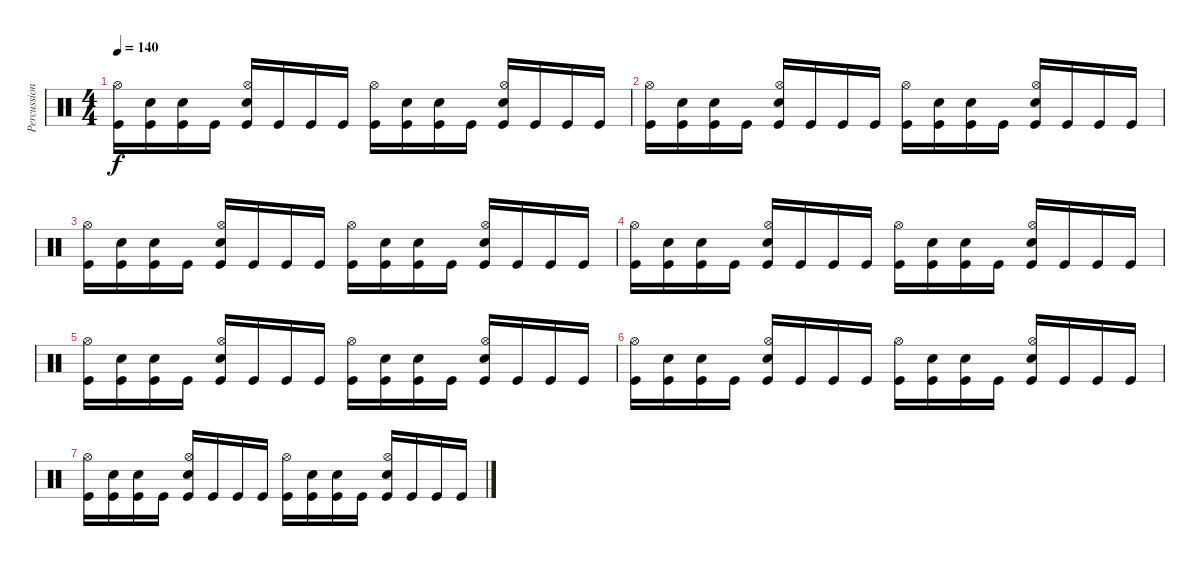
\track ("Percussion" "Percussion") {instrument percussion}
\staff {score}
\articulation defaults
\ts (4 4)
\tempo 140
\clef neutral
\ks c
("Kick (hit)" "Hi-Hat (open)").16{dy f} ("Kick (hit)" "Electric Snare (hit)").16 ("Kick (hit)" "Electric Snare (hit)").16 "Kick (hit)".16 ("Kick (hit)" "Electric Snare (hit)" "Hi-Hat (open)").16 "Kick (hit)".16 "Kick (hit)".16 "Kick (hit)".16 ("Kick (hit)" "Hi-Hat (open)").16 ("Kick (hit)" "Electric Snare (hit)").16 ("Kick (hit)" "Electric Snare (hit)").16 "Kick (hit)".16 ("Kick (hit)" "Hi-Hat (open)" "Electric Snare (hit)").16 "Kick (hit)".16 "Kick (hit)".16 "Kick (hit)".16 |
("Kick (hit)" "Hi-Hat (open)").16 ("Kick (hit)" "Electric Snare (hit)").16 ("Kick (hit)" "Electric Snare (hit)").16 "Kick (hit)".16 ("Kick (hit)" "Electric Snare (hit)" "Hi-Hat (open)").16 "Kick (hit)".16 "Kick (hit)".16 "Kick (hit)".16 ("Kick (hit)" "Hi-Hat (open)").16 ("Kick (hit)" "Electric Snare (hit)").16 ("Kick (hit)" "Electric Snare (hit)").16 "Kick (hit)".16 ("Kick (hit)" "Hi-Hat (open)" "Electric Snare (hit)").16 "Kick (hit)".16 "Kick (hit)".16 "Kick (hit)".16 |
("Kick (hit)" "Hi-Hat (open)").16 ("Kick (hit)" "Electric Snare (hit)").16 ("Kick (hit)" "Electric Snare (hit)").16 "Kick (hit)".16 ("Kick (hit)" "Electric Snare (hit)" "Hi-Hat (open)").16 "Kick (hit)".16 "Kick (hit)".16 "Kick (hit)".16 ("Kick (hit)" "Hi-Hat (open)").16 ("Kick (hit)" "Electric Snare (hit)").16 ("Kick (hit)" "Electric Snare (hit)").16 "Kick (hit)".16 ("Kick (hit)" "Hi-Hat (open)" "Electric Snare (hit)").16 "Kick (hit)".16 "Kick (hit)".16 "Kick (hit)".16 |
("Kick (hit)" "Hi-Hat (open)").16 ("Kick (hit)" "Electric Snare (hit)").16 ("Kick (hit)" "Electric Snare (hit)").16 "Kick (hit)".16 ("Kick (hit)" "Electric Snare (hit)" "Hi-Hat (open)").16 "Kick (hit)".16 "Kick (hit)".16 "Kick (hit)".16 ("Kick (hit)" "Hi-Hat (open)").16 ("Kick (hit)" "Electric Snare (hit)").16 ("Kick (hit)" "Electric Snare (hit)").16 "Kick (hit)".16 ("Kick (hit)" "Hi-Hat (open)" "Electric Snare (hit)").16 "Kick (hit)".16 "Kick (hit)".16 "Kick (hit)".16 |
("Kick (hit)" "Hi-Hat (open)").16 ("Kick (hit)" "Electric Snare (hit)").16 ("Kick (hit)" "Electric Snare (hit)").16 "Kick (hit)".16 ("Kick (hit)" "Electric Snare (hit)" "Hi-Hat (open)").16 "Kick (hit)".16 "Kick (hit)".16 "Kick (hit)".16 ("Kick (hit)" "Hi-Hat (open)").16 ("Kick (hit)" "Electric Snare (hit)").16 ("Kick (hit)" "Electric Snare (hit)").16 "Kick (hit)".16 ("Kick (hit)" "Hi-Hat (open)" "Electric Snare (hit)").16 "Kick (hit)".16 "Kick (hit)".16 "Kick (hit)".16 |
("Kick (hit)" "Hi-Hat (open)").16 ("Kick (hit)" "Electric Snare (hit)").16 ("Kick (hit)" "Electric Snare (hit)").16 "Kick (hit)".16 ("Kick (hit)" "Electric Snare (hit)" "Hi-Hat (open)").16 "Kick (hit)".16 "Kick (hit)".16 "Kick (hit)".16 ("Kick (hit)" "Hi-Hat (open)").16 ("Kick (hit)" "Electric Snare (hit)").16 ("Kick (hit)" "Electric Snare (hit)").16 "Kick (hit)".16 ("Kick (hit)" "Hi-Hat (open)" "Electric Snare (hit)").16 "Kick (hit)".16 "Kick (hit)".16 "Kick (hit)".16 |
("Kick (hit)" "Hi-Hat (open)").16 ("Kick (hit)" "Electric Snare (hit)").16 ("Kick (hit)" "Electric Snare (hit)").16 "Kick (hit)".16 ("Kick (hit)" "Electric Snare (hit)" "Hi-Hat (open)").16 "Kick (hit)".16 "Kick (hit)".16 "Kick (hit)".16 ("Kick (hit)" "Hi-Hat (open)").16 ("Kick (hit)" "Electric Snare (hit)").16 ("Kick (hit)" "Electric Snare (hit)").16 "Kick (hit)".16 ("Kick (hit)" "Hi-Hat (open)" "Electric Snare (hit)").16 "Kick (hit)".16 "Kick (hit)".16 "Kick (hit)".16
